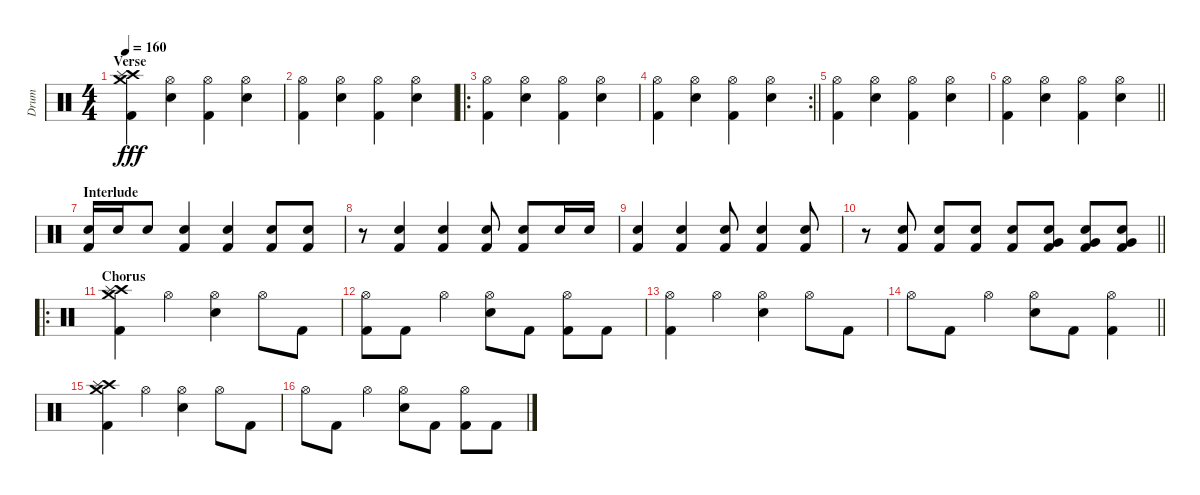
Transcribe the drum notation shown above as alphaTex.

\track ("Drum" "Drum") {instrument percussion}
\staff {score}
\articulation defaults
\ts (4 4)
\section ("" "Verse")
\tempo 160
\clef neutral
\ks c
("Crash high (hit)" "Crash medium (hit)" "Splash (hit)" "Kick (hit) 2").4{dy fff} ("Hi-Hat (open)" "Electric Snare (hit)").4 ("Hi-Hat (open)" "Kick (hit) 2").4 ("Hi-Hat (open)" "Electric Snare (hit)").4 |
("Hi-Hat (open)" "Kick (hit) 2").4 ("Hi-Hat (open)" "Electric Snare (hit)").4 ("Hi-Hat (open)" "Kick (hit) 2").4 ("Hi-Hat (open)" "Electric Snare (hit)").4 |
\ro
("Hi-Hat (open)" "Kick (hit) 2").4 ("Hi-Hat (open)" "Electric Snare (hit)").4 ("Hi-Hat (open)" "Kick (hit) 2").4 ("Hi-Hat (open)" "Electric Snare (hit)").4 |
\rc 2
\barLineRight lightlight
("Hi-Hat (open)" "Kick (hit) 2").4 ("Hi-Hat (open)" "Electric Snare (hit)").4 ("Hi-Hat (open)" "Kick (hit) 2").4 ("Hi-Hat (open)" "Electric Snare (hit)").4 |
("Hi-Hat (open)" "Kick (hit) 2").4 ("Hi-Hat (open)" "Electric Snare (hit)").4 ("Hi-Hat (open)" "Kick (hit) 2").4 ("Hi-Hat (open)" "Electric Snare (hit)").4 |
\barLineRight lightlight
("Hi-Hat (open)" "Kick (hit) 2").4 ("Hi-Hat (open)" "Electric Snare (hit)").4 ("Hi-Hat (open)" "Kick (hit) 2").4 ("Hi-Hat (open)" "Electric Snare (hit)").4 |
\section ("" "Interlude")
("Electric Snare (hit)" "Kick (hit) 2").16 "Electric Snare (hit)".16 "Electric Snare (hit)".8 ("Electric Snare (hit)" "Kick (hit) 2").4 ("Electric Snare (hit)" "Kick (hit) 2").4 ("Electric Snare (hit)" "Kick (hit) 2").8 ("Electric Snare (hit)" "Kick (hit) 2").8 |
r.8 ("Electric Snare (hit)" "Kick (hit) 2").4 ("Electric Snare (hit)" "Kick (hit) 2").4 ("Electric Snare (hit)" "Kick (hit) 2").8 ("Electric Snare (hit)" "Kick (hit) 2").8 "Electric Snare (hit)".16 "Electric Snare (hit)".16 |
("Electric Snare (hit)" "Kick (hit) 2").4 ("Electric Snare (hit)" "Kick (hit) 2").4 ("Electric Snare (hit)" "Kick (hit) 2").8 ("Electric Snare (hit)" "Kick (hit) 2").4 ("Electric Snare (hit)" "Kick (hit) 2").8 |
\barLineRight lightlight
r.8 ("Electric Snare (hit)" "Kick (hit) 2").8 ("Electric Snare (hit)" "Kick (hit) 2").8 ("Electric Snare (hit)" "Kick (hit) 2").8 ("Electric Snare (hit)" "Kick (hit) 2").8 ("Very Low Tom (hit)" "Electric Snare (hit)" "Kick (hit) 2").8 ("Very Low Tom (hit)" "Electric Snare (hit)" "Kick (hit) 2").8 ("Very Low Tom (hit)" "Electric Snare (hit)" "Kick (hit) 2").8 |
\ro
\section ("" "Chorus")
("Crash high (hit)" "Crash medium (hit)" "Splash (hit)" "Kick (hit) 2").4 "Hi-Hat (open)".4 ("Hi-Hat (open)" "Electric Snare (hit)").4 "Hi-Hat (open)".8 "Kick (hit) 2".8 |
("Hi-Hat (open)" "Kick (hit) 2").8 "Kick (hit) 2".8 "Hi-Hat (open)".4 ("Hi-Hat (open)" "Electric Snare (hit)").8 "Kick (hit) 2".8 ("Hi-Hat (open)" "Kick (hit) 2").8 "Kick (hit) 2".8 |
("Hi-Hat (open)" "Kick (hit) 2").4 "Hi-Hat (open)".4 ("Hi-Hat (open)" "Electric Snare (hit)").4 "Hi-Hat (open)".8 "Kick (hit) 2".8 |
\barLineRight lightlight "Hi-Hat (open)".8 "Kick (hit) 2".8 "Hi-Hat (open)".4
("Hi-Hat (open)" "Electric Snare (hit)").8 "Kick (hit) 2".8 ("Hi-Hat (open)" "Kick (hit) 2").4 |
("Crash high (hit)" "Crash medium (hit)" "Splash (hit)" "Kick (hit) 2").4 "Hi-Hat (open)".4 ("Hi-Hat (open)" "Electric Snare (hit)").4 "Hi-Hat (open)".8 "Kick (hit) 2".8 |
"Hi-Hat (open)".8 "Kick (hit) 2".8 "Hi-Hat (open)".4 ("Hi-Hat (open)" "Electric Snare (hit)").8 "Kick (hit) 2".8 ("Hi-Hat (open)" "Kick (hit) 2").8 "Kick (hit) 2".8
